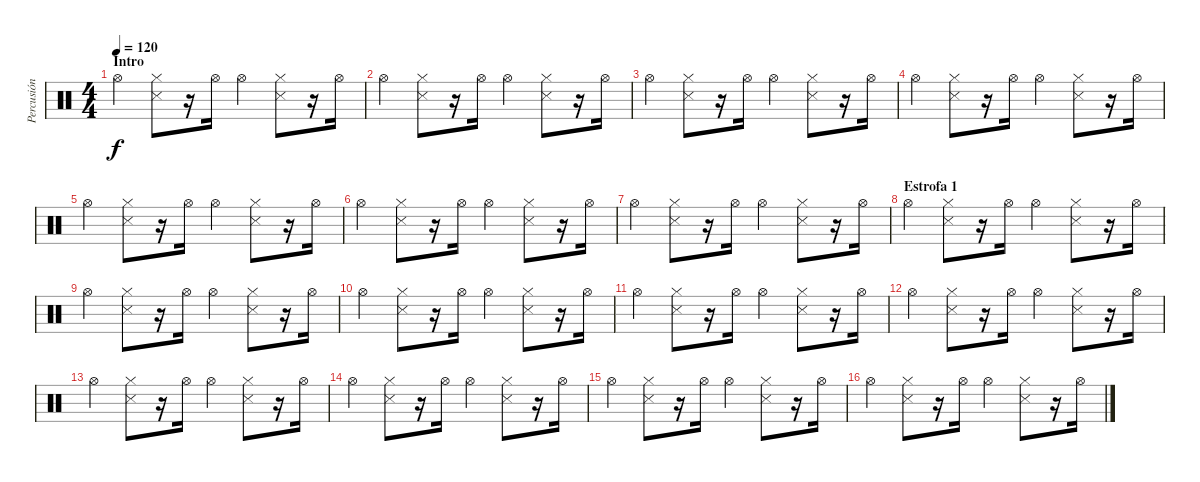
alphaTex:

\track ("Percusión" "Percusión") {instrument percussion}
\staff {score}
\articulation defaults
\ts (4 4)
\section ("" "Intro")
\tempo 120
\clef neutral
\ks c "Hi-Hat (open)".4{dy f}
("Hi-Hat (closed)" "Snare (side stick) 3").8 r.16 "Hi-Hat (open)".16 "Hi-Hat (open)".4 ("Hi-Hat (closed)" "Snare (side stick) 3").8 r.16 "Hi-Hat (open)".16 |
"Hi-Hat (open)".4 ("Hi-Hat (closed)" "Snare (side stick) 3").8 r.16 "Hi-Hat (open)".16 "Hi-Hat (open)".4 ("Hi-Hat (closed)" "Snare (side stick) 3").8 r.16 "Hi-Hat (open)".16 |
"Hi-Hat (open)".4 ("Hi-Hat (closed)" "Snare (side stick) 3").8 r.16 "Hi-Hat (open)".16 "Hi-Hat (open)".4 ("Hi-Hat (closed)" "Snare (side stick) 3").8 r.16 "Hi-Hat (open)".16 |
"Hi-Hat (open)".4 ("Hi-Hat (closed)" "Snare (side stick) 3").8 r.16 "Hi-Hat (open)".16 "Hi-Hat (open)".4 ("Hi-Hat (closed)" "Snare (side stick) 3").8 r.16 "Hi-Hat (open)".16 |
"Hi-Hat (open)".4 ("Hi-Hat (closed)" "Snare (side stick) 3").8 r.16 "Hi-Hat (open)".16 "Hi-Hat (open)".4 ("Hi-Hat (closed)" "Snare (side stick) 3").8 r.16 "Hi-Hat (open)".16 |
"Hi-Hat (open)".4 ("Hi-Hat (closed)" "Snare (side stick) 3").8 r.16 "Hi-Hat (open)".16 "Hi-Hat (open)".4 ("Hi-Hat (closed)" "Snare (side stick) 3").8 r.16 "Hi-Hat (open)".16 |
"Hi-Hat (open)".4 ("Hi-Hat (closed)" "Snare (side stick) 3").8 r.16 "Hi-Hat (open)".16 "Hi-Hat (open)".4 ("Hi-Hat (closed)" "Snare (side stick) 3").8 r.16 "Hi-Hat (open)".16 |
\section ("" "Estrofa 1")
"Hi-Hat (open)".4 ("Hi-Hat (closed)" "Snare (side stick) 3").8 r.16 "Hi-Hat (open)".16 "Hi-Hat (open)".4 ("Hi-Hat (closed)" "Snare (side stick) 3").8 r.16 "Hi-Hat (open)".16 |
"Hi-Hat (open)".4 ("Hi-Hat (closed)" "Snare (side stick) 3").8 r.16 "Hi-Hat (open)".16 "Hi-Hat (open)".4 ("Hi-Hat (closed)" "Snare (side stick) 3").8 r.16 "Hi-Hat (open)".16 |
"Hi-Hat (open)".4 ("Hi-Hat (closed)" "Snare (side stick) 3").8 r.16 "Hi-Hat (open)".16 "Hi-Hat (open)".4 ("Hi-Hat (closed)" "Snare (side stick) 3").8 r.16 "Hi-Hat (open)".16 |
"Hi-Hat (open)".4 ("Hi-Hat (closed)" "Snare (side stick) 3").8 r.16 "Hi-Hat (open)".16 "Hi-Hat (open)".4 ("Hi-Hat (closed)" "Snare (side stick) 3").8 r.16 "Hi-Hat (open)".16 |
"Hi-Hat (open)".4 ("Hi-Hat (closed)" "Snare (side stick) 3").8 r.16 "Hi-Hat (open)".16 "Hi-Hat (open)".4 ("Hi-Hat (closed)" "Snare (side stick) 3").8 r.16 "Hi-Hat (open)".16 |
"Hi-Hat (open)".4 ("Hi-Hat (closed)" "Snare (side stick) 3").8 r.16 "Hi-Hat (open)".16 "Hi-Hat (open)".4 ("Hi-Hat (closed)" "Snare (side stick) 3").8 r.16 "Hi-Hat (open)".16 |
"Hi-Hat (open)".4 ("Hi-Hat (closed)" "Snare (side stick) 3").8 r.16 "Hi-Hat (open)".16 "Hi-Hat (open)".4 ("Hi-Hat (closed)" "Snare (side stick) 3").8 r.16 "Hi-Hat (open)".16 |
"Hi-Hat (open)".4 ("Hi-Hat (closed)" "Snare (side stick) 3").8 r.16 "Hi-Hat (open)".16 "Hi-Hat (open)".4 ("Hi-Hat (closed)" "Snare (side stick) 3").8 r.16 "Hi-Hat (open)".16 |
"Hi-Hat (open)".4 ("Hi-Hat (closed)" "Snare (side stick) 3").8 r.16 "Hi-Hat (open)".16 "Hi-Hat (open)".4 ("Hi-Hat (closed)" "Snare (side stick) 3").8 r.16 "Hi-Hat (open)".16
